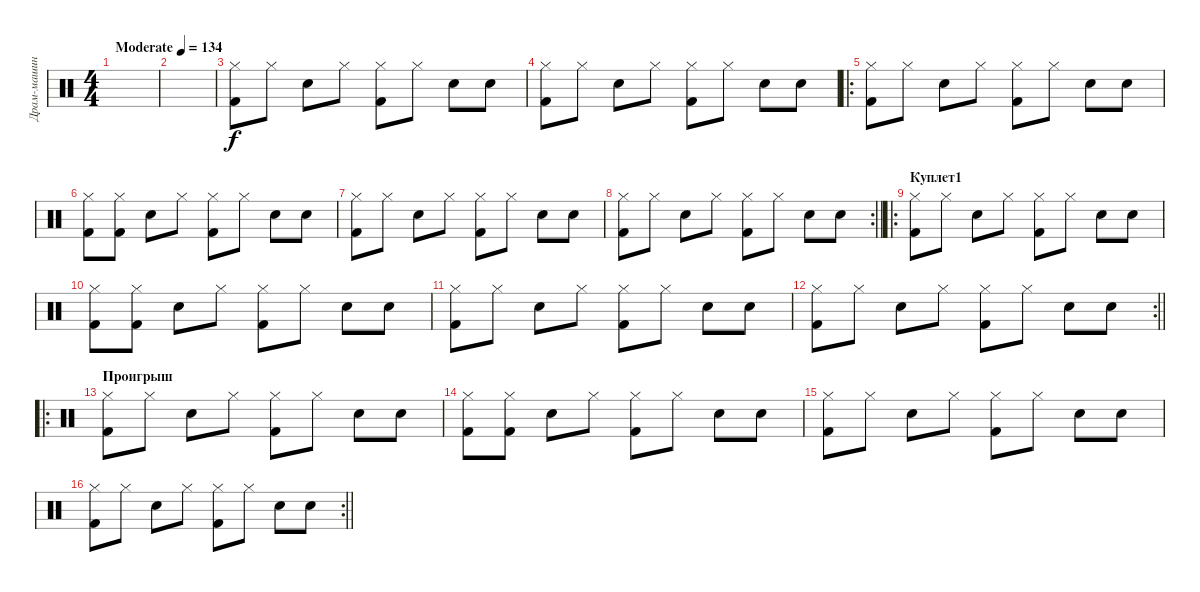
\track ("Драм-машина))" "Драм-машин") {instrument percussion}
\staff {score}
\articulation defaults
\ts (4 4)
\tempo (134 "Moderate")
\clef neutral
\ks c
|
|
("Hi-Hat (closed)" "Kick (hit) 2").8 "Hi-Hat (closed)".8 "Electric Snare (hit)".8 "Hi-Hat (closed)".8 ("Hi-Hat (closed)" "Kick (hit) 2").8 "Hi-Hat (closed)".8 "Electric Snare (hit)".8 "Snare (hit) 2".8 |
("Hi-Hat (closed)" "Kick (hit) 2").8 "Hi-Hat (closed)".8 "Electric Snare (hit)".8 "Hi-Hat (closed)".8 ("Hi-Hat (closed)" "Kick (hit) 2").8 "Hi-Hat (closed)".8 "Electric Snare (hit)".8 "Snare (hit) 2".8 |
\ro
("Hi-Hat (closed)" "Kick (hit) 2").8 "Hi-Hat (closed)".8 "Electric Snare (hit)".8 "Hi-Hat (closed)".8 ("Hi-Hat (closed)" "Kick (hit) 2").8 "Hi-Hat (closed)".8 "Electric Snare (hit)".8 "Snare (hit) 2".8 |
("Hi-Hat (closed)" "Kick (hit) 2").8 ("Hi-Hat (closed)" "Kick (hit) 2").8 "Electric Snare (hit)".8 "Hi-Hat (closed)".8 ("Hi-Hat (closed)" "Kick (hit) 2").8 "Hi-Hat (closed)".8 "Electric Snare (hit)".8 "Snare (hit) 2".8 |
("Hi-Hat (closed)" "Kick (hit) 2").8 "Hi-Hat (closed)".8 "Electric Snare (hit)".8 "Hi-Hat (closed)".8 ("Hi-Hat (closed)" "Kick (hit) 2").8 "Hi-Hat (closed)".8 "Electric Snare (hit)".8 "Snare (hit) 2".8 |
\rc 2
\barLineRight lightlight
("Hi-Hat (closed)" "Kick (hit) 2").8 "Hi-Hat (closed)".8 "Electric Snare (hit)".8 "Hi-Hat (closed)".8 ("Hi-Hat (closed)" "Kick (hit) 2").8 "Hi-Hat (closed)".8 "Electric Snare (hit)".8 "Snare (hit) 2".8 |
\ro
\section ("" "Куплет1")
("Hi-Hat (closed)" "Kick (hit) 2").8 "Hi-Hat (closed)".8 "Electric Snare (hit)".8 "Hi-Hat (closed)".8 ("Hi-Hat (closed)" "Kick (hit) 2").8 "Hi-Hat (closed)".8 "Electric Snare (hit)".8 "Snare (hit) 2".8 |
("Hi-Hat (closed)" "Kick (hit) 2").8 ("Hi-Hat (closed)" "Kick (hit) 2").8 "Electric Snare (hit)".8 "Hi-Hat (closed)".8 ("Hi-Hat (closed)" "Kick (hit) 2").8 "Hi-Hat (closed)".8 "Electric Snare (hit)".8 "Snare (hit) 2".8 |
("Hi-Hat (closed)" "Kick (hit) 2").8 "Hi-Hat (closed)".8 "Electric Snare (hit)".8 "Hi-Hat (closed)".8 ("Hi-Hat (closed)" "Kick (hit) 2").8 "Hi-Hat (closed)".8 "Electric Snare (hit)".8 "Snare (hit) 2".8 |
\rc 2
\barLineRight lightlight
("Hi-Hat (closed)" "Kick (hit) 2").8 "Hi-Hat (closed)".8 "Electric Snare (hit)".8 "Hi-Hat (closed)".8 ("Hi-Hat (closed)" "Kick (hit) 2").8 "Hi-Hat (closed)".8 "Electric Snare (hit)".8 "Snare (hit) 2".8 |
\ro
\section ("" "Проигрыш")
("Hi-Hat (closed)" "Kick (hit) 2").8 "Hi-Hat (closed)".8 "Electric Snare (hit)".8 "Hi-Hat (closed)".8 ("Hi-Hat (closed)" "Kick (hit) 2").8 "Hi-Hat (closed)".8 "Electric Snare (hit)".8 "Snare (hit) 2".8 |
("Hi-Hat (closed)" "Kick (hit) 2").8 ("Hi-Hat (closed)" "Kick (hit) 2").8 "Electric Snare (hit)".8 "Hi-Hat (closed)".8 ("Hi-Hat (closed)" "Kick (hit) 2").8 "Hi-Hat (closed)".8 "Electric Snare (hit)".8 "Snare (hit) 2".8 |
("Hi-Hat (closed)" "Kick (hit) 2").8 "Hi-Hat (closed)".8 "Electric Snare (hit)".8 "Hi-Hat (closed)".8 ("Hi-Hat (closed)" "Kick (hit) 2").8 "Hi-Hat (closed)".8 "Electric Snare (hit)".8 "Snare (hit) 2".8 |
\rc 2
\barLineRight lightlight
("Hi-Hat (closed)" "Kick (hit) 2").8 "Hi-Hat (closed)".8 "Electric Snare (hit)".8 "Hi-Hat (closed)".8 ("Hi-Hat (closed)" "Kick (hit) 2").8 "Hi-Hat (closed)".8 "Electric Snare (hit)".8 "Snare (hit) 2".8
